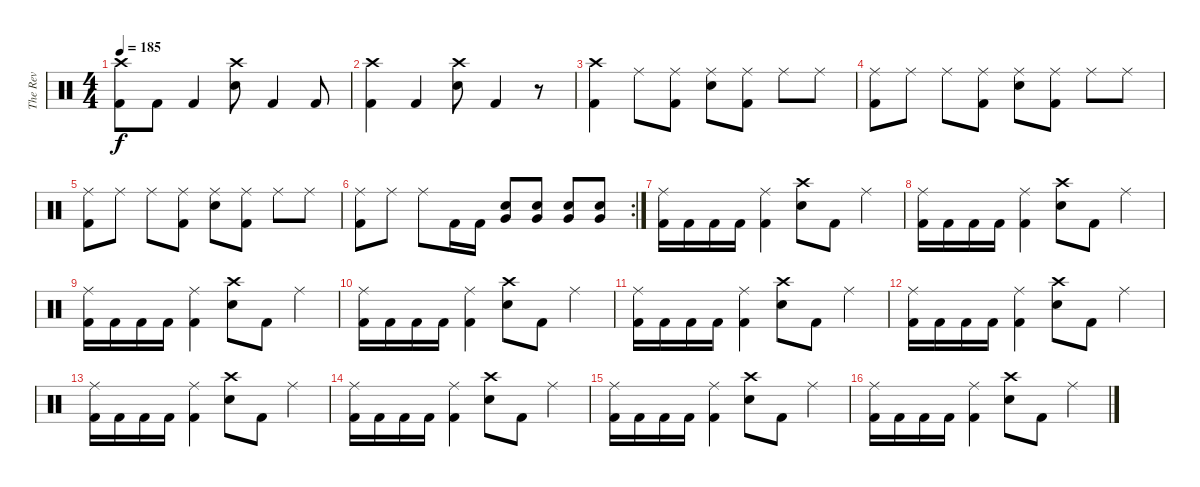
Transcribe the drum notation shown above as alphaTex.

\track ("The Rev" "The Rev") {instrument percussion}
\staff {score}
\articulation defaults
\ts (4 4)
\tempo 185
\clef neutral
\ks c
("Crash high (hit)" "Kick (hit) 2").8{dy f} "Kick (hit) 2".8 "Kick (hit) 2".4 ("Crash high (hit)" "Electric Snare (hit)").8 "Kick (hit) 2".4 "Kick (hit) 2".8 |
("Crash high (hit)" "Kick (hit) 2").4 "Kick (hit) 2".4 ("Crash high (hit)" "Electric Snare (hit)").8 "Kick (hit) 2".4 r.8 |
("Crash high (hit)" "Kick (hit) 2").4 "Ride (middle)".8 ("Ride (middle)" "Kick (hit) 2").8 ("Ride (middle)" "Electric Snare (hit)").8 ("Ride (middle)" "Kick (hit) 2").8 "Ride (middle)".8 "Ride (middle)".8 |
("Ride (middle)" "Kick (hit) 2").8 "Ride (middle)".8 "Ride (middle)".8 ("Ride (middle)" "Kick (hit) 2").8 ("Ride (middle)" "Electric Snare (hit)").8 ("Ride (middle)" "Kick (hit) 2").8 "Ride (middle)".8 "Ride (middle)".8 |
("Ride (middle)" "Kick (hit) 2").8 "Ride (middle)".8 "Ride (middle)".8 ("Ride (middle)" "Kick (hit) 2").8 ("Ride (middle)" "Electric Snare (hit)").8 ("Ride (middle)" "Kick (hit) 2").8 "Ride (middle)".8 "Ride (middle)".8 |
\rc 2
("Ride (middle)" "Kick (hit) 2").8 "Ride (middle)".8 "Ride (middle)".8 "Kick (hit) 2".16 "Kick (hit) 2".16 ("Very Low Tom (hit)" "Electric Snare (hit)").8 ("Very Low Tom (hit)" "Electric Snare (hit)").8 ("Very Low Tom (hit)" "Electric Snare (hit)").8 ("Very Low Tom (hit)" "Electric Snare (hit)").8 |
("Ride (middle)" "Kick (hit) 2").16 "Kick (hit) 2".16 "Kick (hit) 2".16 "Kick (hit) 2".16 ("Ride (middle)" "Kick (hit) 2").4 ("Crash high (hit)" "Electric Snare (hit)").8 "Kick (hit) 2".8 "Ride (middle)".4 |
("Ride (middle)" "Kick (hit) 2").16 "Kick (hit) 2".16 "Kick (hit) 2".16 "Kick (hit) 2".16 ("Ride (middle)" "Kick (hit) 2").4 ("Crash high (hit)" "Electric Snare (hit)").8 "Kick (hit) 2".8 "Ride (middle)".4 |
("Ride (middle)" "Kick (hit) 2").16 "Kick (hit) 2".16 "Kick (hit) 2".16 "Kick (hit) 2".16 ("Ride (middle)" "Kick (hit) 2").4 ("Crash high (hit)" "Electric Snare (hit)").8 "Kick (hit) 2".8 "Ride (middle)".4 |
("Ride (middle)" "Kick (hit) 2").16 "Kick (hit) 2".16 "Kick (hit) 2".16 "Kick (hit) 2".16 ("Ride (middle)" "Kick (hit) 2").4 ("Crash high (hit)" "Electric Snare (hit)").8 "Kick (hit) 2".8 "Ride (middle)".4 |
("Ride (middle)" "Kick (hit) 2").16 "Kick (hit) 2".16 "Kick (hit) 2".16 "Kick (hit) 2".16 ("Ride (middle)" "Kick (hit) 2").4 ("Crash high (hit)" "Electric Snare (hit)").8 "Kick (hit) 2".8 "Ride (middle)".4 |
("Ride (middle)" "Kick (hit) 2").16 "Kick (hit) 2".16 "Kick (hit) 2".16 "Kick (hit) 2".16 ("Ride (middle)" "Kick (hit) 2").4 ("Crash high (hit)" "Electric Snare (hit)").8 "Kick (hit) 2".8 "Ride (middle)".4 |
("Ride (middle)" "Kick (hit) 2").16 "Kick (hit) 2".16 "Kick (hit) 2".16 "Kick (hit) 2".16 ("Ride (middle)" "Kick (hit) 2").4 ("Crash high (hit)" "Electric Snare (hit)").8 "Kick (hit) 2".8 "Ride (middle)".4 |
("Ride (middle)" "Kick (hit) 2").16 "Kick (hit) 2".16 "Kick (hit) 2".16 "Kick (hit) 2".16 ("Ride (middle)" "Kick (hit) 2").4 ("Crash high (hit)" "Electric Snare (hit)").8 "Kick (hit) 2".8 "Ride (middle)".4 |
("Ride (middle)" "Kick (hit) 2").16 "Kick (hit) 2".16 "Kick (hit) 2".16 "Kick (hit) 2".16 ("Ride (middle)" "Kick (hit) 2").4 ("Crash high (hit)" "Electric Snare (hit)").8 "Kick (hit) 2".8 "Ride (middle)".4 |
("Ride (middle)" "Kick (hit) 2").16 "Kick (hit) 2".16 "Kick (hit) 2".16 "Kick (hit) 2".16 ("Ride (middle)" "Kick (hit) 2").4 ("Crash high (hit)" "Electric Snare (hit)").8 "Kick (hit) 2".8 "Ride (middle)".4
